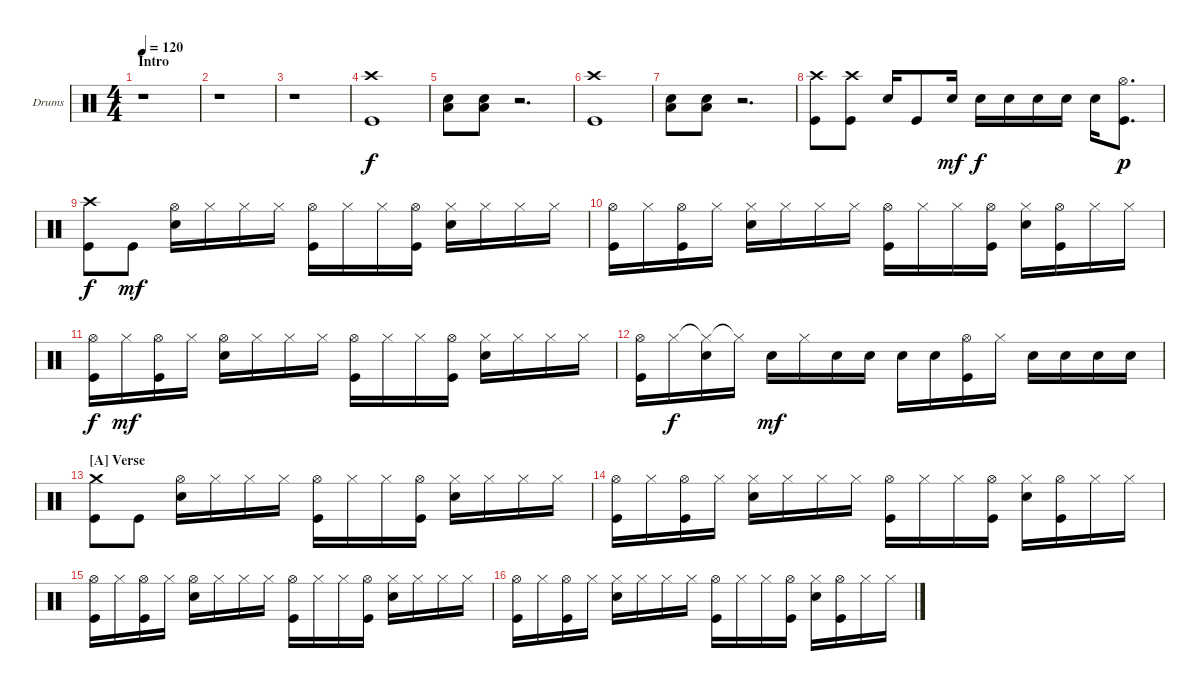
\defaultSystemsLayout 4
\bracketExtendMode groupsimilarinstruments
\firstSystemTrackNameOrientation horizontal
\otherSystemsTrackNameOrientation horizontal
\track ("Drumkit" "Drums") {instrument percussion}
\staff {score}
\articulation defaults
\ts (4 4)
\section ("" "Intro")
\tempo 120
\clef neutral
\scale
0.472222
\ks c
r.1{dy f} |
\scale
0.263889 r.1 |
\scale
0.263889 r.1 |
\scale
0.333333 ("Crash high (hit)" "Kick (hit)").1 |
\scale
0.333333 ("Low Tom (hit)" "Snare (hit) 2").8 ("Low Tom (hit)" "Snare (hit) 2").8 r.2{d} |
\scale
0.333333 ("Crash high (hit)" "Kick (hit)").1 |
\scale
0.333333 ("Low Tom (hit)" "Snare (hit) 2").8 ("Low Tom (hit)" "Snare (hit) 2").8 r.2{d} |
\scale
0.333333 ("Crash high (hit)" "Kick (hit)").8 ("Crash high (hit)" "Kick (hit)").8 "Snare (hit) 2".16 "Kick (hit)".8 "Snare (hit) 2".16{dy mf} "Snare (hit) 2".16{dy f} "Snare (hit) 2".16 "Snare (hit) 2".16 "Snare (hit) 2".16 "Snare (hit) 2".16 ("Hi-Hat (open)" "Kick (hit)").8{d dy p} |
\scale
0.333333 ("Crash high (hit)" "Kick (hit)").8{dy f} "Kick (hit)".8{dy mf} ("Hi-Hat (open)" "Snare (hit) 2").16 "Hi-Hat (closed)".16 "Hi-Hat (closed)".16 "Hi-Hat (closed)".16 ("Hi-Hat (open)" "Kick (hit)").16 "Hi-Hat (closed)".16 "Hi-Hat (closed)".16 ("Hi-Hat (open)" "Kick (hit)").16 ("Hi-Hat (closed)" "Snare (hit) 2").16 "Hi-Hat (closed)".16 "Hi-Hat (closed)".16 "Hi-Hat (closed)".16 |
\scale
0.333333 ("Hi-Hat (open)" "Kick (hit)").16 "Hi-Hat (closed)".16 ("Hi-Hat (open)" "Kick (hit)").16 "Hi-Hat (closed)".16 ("Hi-Hat (closed)" "Snare (hit) 2").16 "Hi-Hat (closed)".16 "Hi-Hat (closed)".16 "Hi-Hat (closed)".16 ("Hi-Hat (open)" "Kick (hit)").16 "Hi-Hat (closed)".16 "Hi-Hat (closed)".16 ("Hi-Hat (open)" "Kick (hit)").16 ("Hi-Hat (closed)" "Snare (hit) 2").16 ("Hi-Hat (open)" "Kick (hit)").16 "Hi-Hat (closed)".16 "Hi-Hat (closed)".16 |
\scale
0.333333 ("Hi-Hat (open)" "Kick (hit)").16{dy f} "Hi-Hat (closed)".16{dy mf} ("Hi-Hat (open)" "Kick (hit)").16 "Hi-Hat (closed)".16 ("Hi-Hat (open)" "Snare (hit) 2").16 "Hi-Hat (closed)".16 "Hi-Hat (closed)".16 "Hi-Hat (closed)".16 ("Hi-Hat (open)" "Kick (hit)").16 "Hi-Hat (closed)".16 "Hi-Hat (closed)".16 ("Hi-Hat (open)" "Kick (hit)").16 ("Hi-Hat (closed)" "Snare (hit) 2").16 "Hi-Hat (closed)".16 "Hi-Hat (closed)".16 "Hi-Hat (closed)".16 |
\scale
0.333333 ("Hi-Hat (open)" "Kick (hit)").16 "Hi-Hat (closed)".16{dy f} ("Hi-Hat (closed)"{t} "Snare (hit) 2").16 "Hi-Hat (closed)"{t}.16 "Snare (hit) 2".16{dy mf} "Hi-Hat (closed)".16 "Snare (hit) 2".16 "Snare (hit) 2".16 "Snare (hit) 2".16 "Snare (hit) 2".16 ("Hi-Hat (open)" "Kick (hit)").16 "Hi-Hat (closed)".16 "Snare (hit) 2".16 "Snare (hit) 2".16 "Snare (hit) 2".16 "Snare (hit) 2".16 |
\section ("A" "Verse")
\scale
0.333333 ("Crash medium (hit)" "Kick (hit)").8 "Kick (hit)".8 ("Hi-Hat (open)" "Snare (hit) 2").16 "Hi-Hat (closed)".16 "Hi-Hat (closed)".16 "Hi-Hat (closed)".16 ("Hi-Hat (open)" "Kick (hit)").16 "Hi-Hat (closed)".16 "Hi-Hat (closed)".16 ("Hi-Hat (open)" "Kick (hit)").16 ("Hi-Hat (closed)" "Snare (hit) 2").16 "Hi-Hat (closed)".16 "Hi-Hat (closed)".16 "Hi-Hat (closed)".16 |
\scale
0.333333 ("Hi-Hat (open)" "Kick (hit)").16 "Hi-Hat (closed)".16 ("Hi-Hat (open)" "Kick (hit)").16 "Hi-Hat (closed)".16 ("Hi-Hat (closed)" "Snare (hit) 2").16 "Hi-Hat (closed)".16 "Hi-Hat (closed)".16 "Hi-Hat (closed)".16 ("Hi-Hat (open)" "Kick (hit)").16 "Hi-Hat (closed)".16 "Hi-Hat (closed)".16 ("Hi-Hat (open)" "Kick (hit)").16 ("Hi-Hat (closed)" "Snare (hit) 2").16 ("Hi-Hat (open)" "Kick (hit)").16 "Hi-Hat (closed)".16 "Hi-Hat (closed)".16 |
\scale
0.333333 ("Hi-Hat (open)" "Kick (hit)").16 "Hi-Hat (closed)".16 ("Hi-Hat (open)" "Kick (hit)").16 "Hi-Hat (closed)".16 ("Hi-Hat (open)" "Snare (hit) 2").16 "Hi-Hat (closed)".16 "Hi-Hat (closed)".16 "Hi-Hat (closed)".16 ("Hi-Hat (open)" "Kick (hit)").16 "Hi-Hat (closed)".16 "Hi-Hat (closed)".16 ("Hi-Hat (open)" "Kick (hit)").16 ("Hi-Hat (closed)" "Snare (hit) 2").16 "Hi-Hat (closed)".16 "Hi-Hat (closed)".16 "Hi-Hat (closed)".16 |
\scale
0.333333 ("Hi-Hat (open)" "Kick (hit)").16 "Hi-Hat (closed)".16 ("Hi-Hat (open)" "Kick (hit)").16 "Hi-Hat (closed)".16 ("Hi-Hat (closed)" "Snare (hit) 2").16 "Hi-Hat (closed)".16 "Hi-Hat (closed)".16 "Hi-Hat (closed)".16 ("Hi-Hat (open)" "Kick (hit)").16 "Hi-Hat (closed)".16 "Hi-Hat (closed)".16 ("Hi-Hat (open)" "Kick (hit)").16 ("Hi-Hat (closed)" "Snare (hit) 2").16 ("Hi-Hat (open)" "Kick (hit)").16 "Hi-Hat (closed)".16 "Hi-Hat (closed)".16
